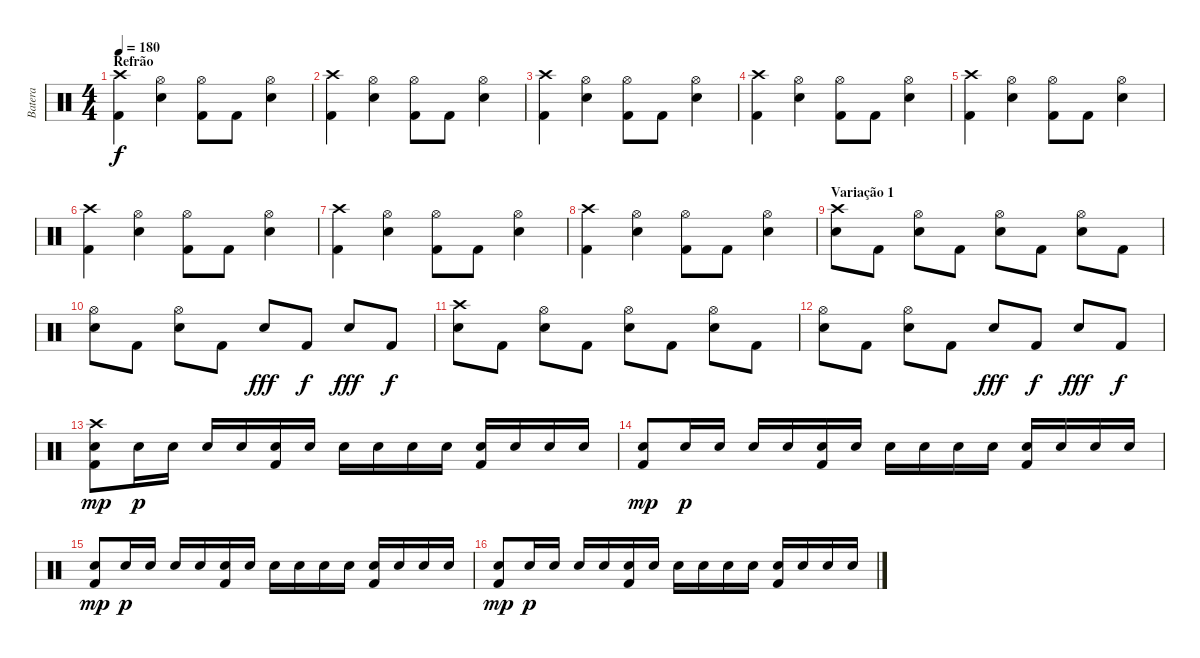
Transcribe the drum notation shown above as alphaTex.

\track ("Batera" "Batera") {instrument percussion}
\staff {score}
\articulation defaults
\ts (4 4)
\section ("" "Refrão")
\tempo 180
\clef neutral
\ks c
("Crash high (hit)" "Kick (hit) 2").4{dy f} ("Hi-Hat (open)" "Snare (hit) 2").4 ("Hi-Hat (open)" "Kick (hit) 2").8 "Kick (hit) 2".8 ("Hi-Hat (open)" "Snare (hit) 2").4 |
("Crash high (hit)" "Kick (hit) 2").4 ("Hi-Hat (open)" "Snare (hit) 2").4 ("Hi-Hat (open)" "Kick (hit) 2").8 "Kick (hit) 2".8 ("Hi-Hat (open)" "Snare (hit) 2").4 |
("Crash high (hit)" "Kick (hit) 2").4 ("Hi-Hat (open)" "Snare (hit) 2").4 ("Hi-Hat (open)" "Kick (hit) 2").8 "Kick (hit) 2".8 ("Hi-Hat (open)" "Snare (hit) 2").4 |
("Crash high (hit)" "Kick (hit) 2").4 ("Hi-Hat (open)" "Snare (hit) 2").4 ("Hi-Hat (open)" "Kick (hit) 2").8 "Kick (hit) 2".8 ("Hi-Hat (open)" "Snare (hit) 2").4 |
("Crash high (hit)" "Kick (hit) 2").4 ("Hi-Hat (open)" "Snare (hit) 2").4 ("Hi-Hat (open)" "Kick (hit) 2").8 "Kick (hit) 2".8 ("Hi-Hat (open)" "Snare (hit) 2").4 |
("Crash high (hit)" "Kick (hit) 2").4 ("Hi-Hat (open)" "Snare (hit) 2").4 ("Hi-Hat (open)" "Kick (hit) 2").8 "Kick (hit) 2".8 ("Hi-Hat (open)" "Snare (hit) 2").4 |
("Crash high (hit)" "Kick (hit) 2").4 ("Hi-Hat (open)" "Snare (hit) 2").4 ("Hi-Hat (open)" "Kick (hit) 2").8 "Kick (hit) 2".8 ("Hi-Hat (open)" "Snare (hit) 2").4 |
("Crash high (hit)" "Kick (hit) 2").4 ("Hi-Hat (open)" "Snare (hit) 2").4 ("Hi-Hat (open)" "Kick (hit) 2").8 "Kick (hit) 2".8 ("Hi-Hat (open)" "Snare (hit) 2").4 |
\section ("" "Variação 1")
("Crash high (hit)" "Snare (hit) 2").8 "Kick (hit) 2".8 ("Hi-Hat (open)" "Snare (hit) 2").8 "Kick (hit) 2".8 ("Hi-Hat (open)" "Snare (hit) 2").8 "Kick (hit) 2".8 ("Hi-Hat (open)" "Snare (hit) 2").8 "Kick (hit) 2".8 |
("Hi-Hat (open)" "Snare (hit) 2").8 "Kick (hit) 2".8 ("Hi-Hat (open)" "Snare (hit) 2").8 "Kick (hit) 2".8 "Snare (hit) 2".8{dy fff} "Kick (hit) 2".8{dy f} "Snare (hit) 2".8{dy fff} "Kick (hit) 2".8{dy f} |
("Crash high (hit)" "Snare (hit) 2").8 "Kick (hit) 2".8 ("Hi-Hat (open)" "Snare (hit) 2").8 "Kick (hit) 2".8 ("Hi-Hat (open)" "Snare (hit) 2").8 "Kick (hit) 2".8 ("Hi-Hat (open)" "Snare (hit) 2").8 "Kick (hit) 2".8 |
("Hi-Hat (open)" "Snare (hit) 2").8 "Kick (hit) 2".8 ("Hi-Hat (open)" "Snare (hit) 2").8 "Kick (hit) 2".8 "Snare (hit) 2".8{dy fff} "Kick (hit) 2".8{dy f} "Snare (hit) 2".8{dy fff} "Kick (hit) 2".8{dy f} |
("Crash high (hit)" "Snare (hit) 2" "Kick (hit) 2").8{dy mp} "Snare (hit) 2".16{dy p} "Snare (hit) 2".16 "Snare (hit) 2".16 "Snare (hit) 2".16 ("Kick (hit) 2" "Snare (hit) 2").16 "Snare (hit) 2".16 "Snare (hit) 2".16 "Snare (hit) 2".16 "Snare (hit) 2".16 "Snare (hit) 2".16 ("Kick (hit) 2" "Snare (hit) 2").16 "Snare (hit) 2".16 "Snare (hit) 2".16 "Snare (hit) 2".16 |
("Snare (hit) 2" "Kick (hit) 2").8{dy mp} "Snare (hit) 2".16{dy p} "Snare (hit) 2".16 "Snare (hit) 2".16 "Snare (hit) 2".16 ("Kick (hit) 2" "Snare (hit) 2").16 "Snare (hit) 2".16 "Snare (hit) 2".16 "Snare (hit) 2".16 "Snare (hit) 2".16 "Snare (hit) 2".16 ("Kick (hit) 2" "Snare (hit) 2").16 "Snare (hit) 2".16 "Snare (hit) 2".16 "Snare (hit) 2".16 |
("Snare (hit) 2" "Kick (hit) 2").8{dy mp} "Snare (hit) 2".16{dy p} "Snare (hit) 2".16 "Snare (hit) 2".16 "Snare (hit) 2".16 ("Kick (hit) 2" "Snare (hit) 2").16 "Snare (hit) 2".16 "Snare (hit) 2".16 "Snare (hit) 2".16 "Snare (hit) 2".16 "Snare (hit) 2".16 ("Kick (hit) 2" "Snare (hit) 2").16 "Snare (hit) 2".16 "Snare (hit) 2".16 "Snare (hit) 2".16 |
("Snare (hit) 2" "Kick (hit) 2").8{dy mp} "Snare (hit) 2".16{dy p} "Snare (hit) 2".16 "Snare (hit) 2".16 "Snare (hit) 2".16 ("Kick (hit) 2" "Snare (hit) 2").16 "Snare (hit) 2".16 "Snare (hit) 2".16 "Snare (hit) 2".16 "Snare (hit) 2".16 "Snare (hit) 2".16 ("Kick (hit) 2" "Snare (hit) 2").16 "Snare (hit) 2".16 "Snare (hit) 2".16 "Snare (hit) 2".16
